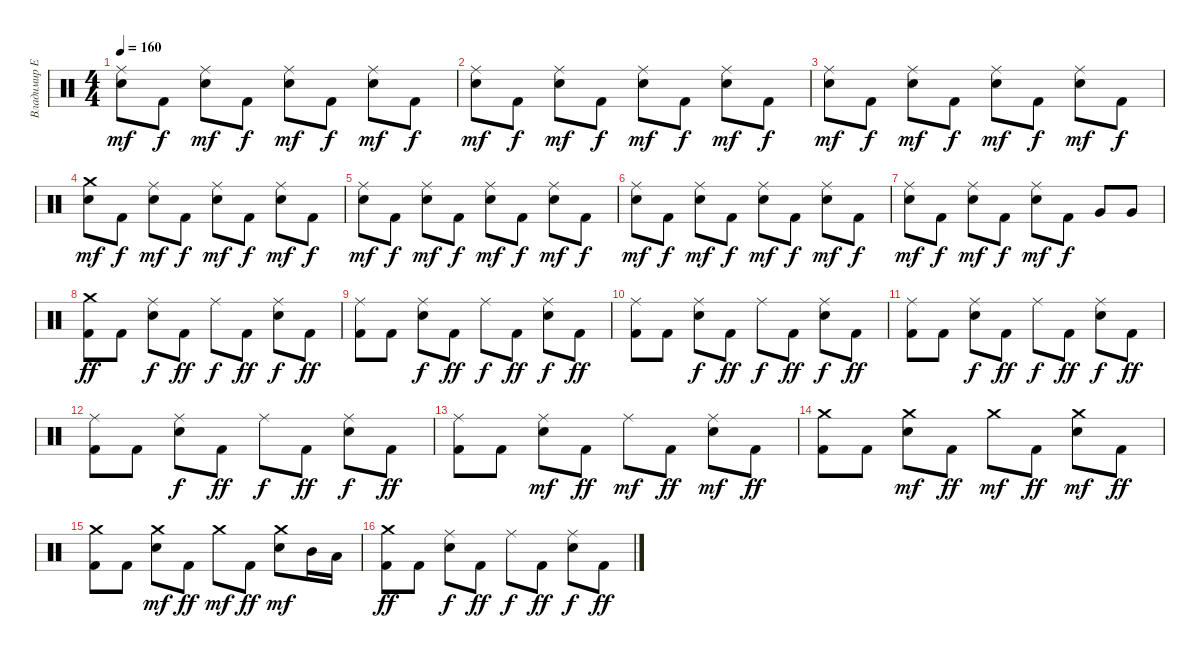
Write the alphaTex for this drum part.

\track ("Владимир Ермаков" "Владимир Е") {instrument percussion}
\staff {score}
\articulation defaults
\ts (4 4)
\tempo 160
\clef neutral
\ks c
("Ride (middle)" "Electric Snare (hit)").8{dy mf} "Kick (hit) 2".8{dy f} ("Ride (middle)" "Electric Snare (hit)").8{dy mf} "Kick (hit) 2".8{dy f} ("Ride (middle)" "Electric Snare (hit)").8{dy mf} "Kick (hit) 2".8{dy f} ("Ride (middle)" "Electric Snare (hit)").8{dy mf} "Kick (hit) 2".8{dy f} |
("Ride (middle)" "Electric Snare (hit)").8{dy mf} "Kick (hit) 2".8{dy f} ("Ride (middle)" "Electric Snare (hit)").8{dy mf} "Kick (hit) 2".8{dy f} ("Ride (middle)" "Electric Snare (hit)").8{dy mf} "Kick (hit) 2".8{dy f} ("Ride (middle)" "Electric Snare (hit)").8{dy mf} "Kick (hit) 2".8{dy f} |
("Ride (middle)" "Electric Snare (hit)").8{dy mf} "Kick (hit) 2".8{dy f} ("Ride (middle)" "Electric Snare (hit)").8{dy mf} "Kick (hit) 2".8{dy f} ("Ride (middle)" "Electric Snare (hit)").8{dy mf} "Kick (hit) 2".8{dy f} ("Ride (middle)" "Electric Snare (hit)").8{dy mf} "Kick (hit) 2".8{dy f} |
("Crash medium (hit)" "Electric Snare (hit)").8{dy mf} "Kick (hit) 2".8{dy f} ("Ride (middle)" "Electric Snare (hit)").8{dy mf} "Kick (hit) 2".8{dy f} ("Ride (middle)" "Electric Snare (hit)").8{dy mf} "Kick (hit) 2".8{dy f} ("Ride (middle)" "Electric Snare (hit)").8{dy mf} "Kick (hit) 2".8{dy f} |
("Ride (middle)" "Electric Snare (hit)").8{dy mf} "Kick (hit) 2".8{dy f} ("Ride (middle)" "Electric Snare (hit)").8{dy mf} "Kick (hit) 2".8{dy f} ("Ride (middle)" "Electric Snare (hit)").8{dy mf} "Kick (hit) 2".8{dy f} ("Ride (middle)" "Electric Snare (hit)").8{dy mf} "Kick (hit) 2".8{dy f} |
("Ride (middle)" "Electric Snare (hit)").8{dy mf} "Kick (hit) 2".8{dy f} ("Ride (middle)" "Electric Snare (hit)").8{dy mf} "Kick (hit) 2".8{dy f} ("Ride (middle)" "Electric Snare (hit)").8{dy mf} "Kick (hit) 2".8{dy f} ("Ride (middle)" "Electric Snare (hit)").8{dy mf} "Kick (hit) 2".8{dy f} |
("Ride (middle)" "Electric Snare (hit)").8{dy mf} "Kick (hit) 2".8{dy f} ("Ride (middle)" "Electric Snare (hit)").8{dy mf} "Kick (hit) 2".8{dy f} ("Ride (middle)" "Electric Snare (hit)").8{dy mf} "Kick (hit) 2".8{dy f} "Very Low Tom (hit)".8 "Very Low Tom (hit)".8 |
("Crash medium (hit)" "Kick (hit) 2").8{dy ff} "Kick (hit) 2".8 ("Ride (middle)" "Electric Snare (hit)").8{dy f} "Kick (hit) 2".8{dy ff} "Ride (middle)".8{dy f} "Kick (hit) 2".8{dy ff} ("Ride (middle)" "Electric Snare (hit)").8{dy f} "Kick (hit) 2".8{dy ff} |
("Ride (middle)" "Kick (hit) 2").8 "Kick (hit) 2".8 ("Ride (middle)" "Electric Snare (hit)").8{dy f} "Kick (hit) 2".8{dy ff} "Ride (middle)".8{dy f} "Kick (hit) 2".8{dy ff} ("Ride (middle)" "Electric Snare (hit)").8{dy f} "Kick (hit) 2".8{dy ff} |
("Ride (middle)" "Kick (hit) 2").8 "Kick (hit) 2".8 ("Ride (middle)" "Electric Snare (hit)").8{dy f} "Kick (hit) 2".8{dy ff} "Ride (middle)".8{dy f} "Kick (hit) 2".8{dy ff} ("Ride (middle)" "Electric Snare (hit)").8{dy f} "Kick (hit) 2".8{dy ff} |
("Ride (middle)" "Kick (hit) 2").8 "Kick (hit) 2".8 ("Ride (middle)" "Electric Snare (hit)").8{dy f} "Kick (hit) 2".8{dy ff} "Ride (middle)".8{dy f} "Kick (hit) 2".8{dy ff} ("Ride (middle)" "Electric Snare (hit)").8{dy f} "Kick (hit) 2".8{dy ff} |
("Ride (middle)" "Kick (hit) 2").8 "Kick (hit) 2".8 ("Ride (middle)" "Electric Snare (hit)").8{dy f} "Kick (hit) 2".8{dy ff} "Ride (middle)".8{dy f} "Kick (hit) 2".8{dy ff} ("Ride (middle)" "Electric Snare (hit)").8{dy f} "Kick (hit) 2".8{dy ff} |
("Ride (middle)" "Kick (hit) 2").8 "Kick (hit) 2".8 ("Ride (middle)" "Electric Snare (hit)").8{dy mf} "Kick (hit) 2".8{dy ff} "Ride (middle)".8{dy mf} "Kick (hit) 2".8{dy ff} ("Ride (middle)" "Electric Snare (hit)").8{dy mf} "Kick (hit) 2".8{dy ff} |
("Crash medium (hit)" "Kick (hit) 2").8 "Kick (hit) 2".8 ("Crash medium (hit)" "Electric Snare (hit)").8{dy mf} "Kick (hit) 2".8{dy ff} "Crash medium (hit)".8{dy mf} "Kick (hit) 2".8{dy ff} ("Crash medium (hit)" "Electric Snare (hit)").8{dy mf} "Kick (hit) 2".8{dy ff} |
("Crash medium (hit)" "Kick (hit) 2").8 "Kick (hit) 2".8 ("Crash medium (hit)" "Electric Snare (hit)").8{dy mf} "Kick (hit) 2".8{dy ff} "Crash medium (hit)".8{dy mf} "Kick (hit) 2".8{dy ff} ("Crash medium (hit)" "Electric Snare (hit)").8{dy mf} "Mid Tom (hit)".16 "Low Tom (hit)".16 |
("Crash medium (hit)" "Kick (hit) 2").8{dy ff} "Kick (hit) 2".8 ("Ride (middle)" "Electric Snare (hit)").8{dy f} "Kick (hit) 2".8{dy ff} "Ride (middle)".8{dy f} "Kick (hit) 2".8{dy ff} ("Ride (middle)" "Electric Snare (hit)").8{dy f} "Kick (hit) 2".8{dy ff}
